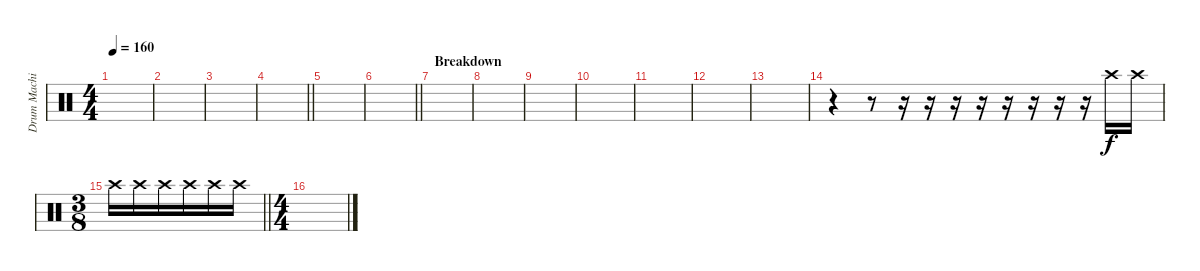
\track ("Drum Machine" "Drum Machi") {instrument percussion}
\staff {score}
\articulation defaults
\ts (4 4)
\tempo 160
\clef neutral
\ks c
|
|
|
\barLineRight lightlight
|
\section ("" "")
|
\barLineRight lightlight
|
\section ("" "Breakdown")
|
|
|
|
|
|
|
r.4 r.8 r.16 r.16 r.16 r.16 r.16 r.16 r.16 r.16{volume 0} "Crash high (hit)".16{volume 16} "Crash high (hit)".16 |
\ts (3 8)
\barLineRight lightlight "Crash high (hit)".16 "Crash high (hit)".16 "Crash high (hit)".16 "Crash high (hit)".16 "Crash high (hit)".16 "Crash high (hit)".16
|
\ts (4 4)
\section ("" "")
